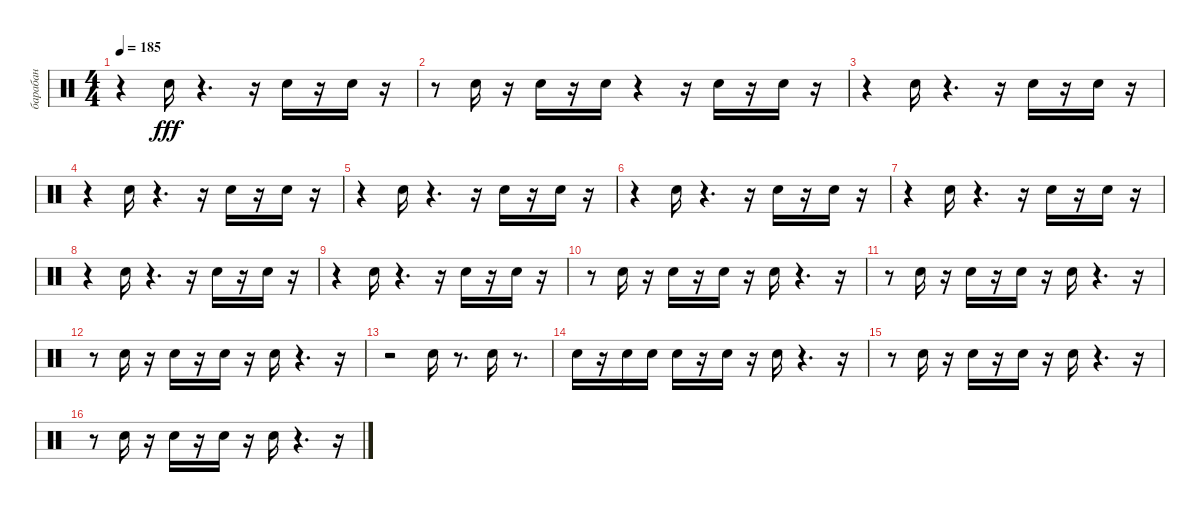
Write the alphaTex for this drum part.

\track ("барабан" "барабан") {instrument percussion}
\staff {score}
\articulation defaults
\ts (4 4)
\tempo 185
\clef neutral
\ks c
r.4{dy fff} "Snare (hit) 2".16 r.4{d} r.16 "Snare (hit) 2".16 r.16 "Snare (hit) 2".16 r.16 |
r.8 "Snare (hit) 2".16 r.16 "Snare (hit) 2".16 r.16 "Snare (hit) 2".16 r.4 r.16 "Snare (hit) 2".16 r.16 "Snare (hit) 2".16 r.16 |
r.4 "Snare (hit) 2".16 r.4{d} r.16 "Snare (hit) 2".16 r.16 "Snare (hit) 2".16 r.16 |
r.4 "Snare (hit) 2".16 r.4{d} r.16 "Snare (hit) 2".16 r.16 "Snare (hit) 2".16 r.16 |
r.4 "Snare (hit) 2".16 r.4{d} r.16 "Snare (hit) 2".16 r.16 "Snare (hit) 2".16 r.16 |
r.4 "Snare (hit) 2".16 r.4{d} r.16 "Snare (hit) 2".16 r.16 "Snare (hit) 2".16 r.16 |
r.4 "Snare (hit) 2".16 r.4{d} r.16 "Snare (hit) 2".16 r.16 "Snare (hit) 2".16 r.16 |
r.4 "Snare (hit) 2".16 r.4{d} r.16 "Snare (hit) 2".16 r.16 "Snare (hit) 2".16 r.16 |
r.4 "Snare (hit) 2".16 r.4{d} r.16 "Snare (hit) 2".16 r.16 "Snare (hit) 2".16 r.16 |
r.8 "Snare (hit) 2".16 r.16 "Snare (hit) 2".16 r.16 "Snare (hit) 2".16 r.16 "Snare (hit) 2".16 r.4{d} r.16 |
r.8 "Snare (hit) 2".16 r.16 "Snare (hit) 2".16 r.16 "Snare (hit) 2".16 r.16 "Snare (hit) 2".16 r.4{d} r.16 |
r.8 "Snare (hit) 2".16 r.16 "Snare (hit) 2".16 r.16 "Snare (hit) 2".16 r.16 "Snare (hit) 2".16 r.4{d} r.16 |
r.2 "Snare (hit) 2".16 r.8{d} "Snare (hit) 2".16 r.8{d} |
"Snare (hit) 2".16 r.16 "Snare (hit) 2".16 "Snare (hit) 2".16 "Snare (hit) 2".16 r.16 "Snare (hit) 2".16 r.16 "Snare (hit) 2".16 r.4{d} r.16 |
r.8 "Snare (hit) 2".16 r.16 "Snare (hit) 2".16 r.16 "Snare (hit) 2".16 r.16 "Snare (hit) 2".16 r.4{d} r.16 |
r.8 "Snare (hit) 2".16 r.16 "Snare (hit) 2".16 r.16 "Snare (hit) 2".16 r.16 "Snare (hit) 2".16 r.4{d} r.16
